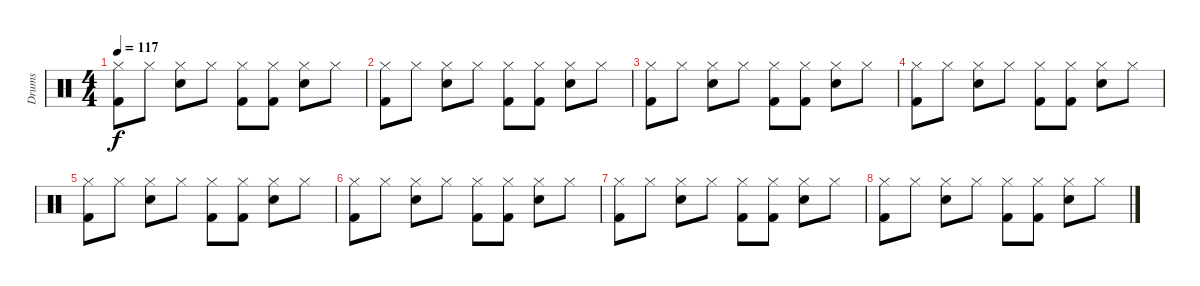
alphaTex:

\track ("Drums" "Drums") {instrument percussion}
\staff {score}
\articulation defaults
\ts (4 4)
\tempo 117
\clef neutral
\ks c
("Hi-Hat (closed)" "Kick (hit) 2").8{dy f} "Hi-Hat (closed)".8 ("Hi-Hat (closed)" "Snare (hit) 2").8 "Hi-Hat (closed)".8 ("Hi-Hat (closed)" "Kick (hit) 2").8 ("Hi-Hat (closed)" "Kick (hit) 2").8 ("Hi-Hat (closed)" "Snare (hit) 2").8 "Hi-Hat (closed)".8 |
("Hi-Hat (closed)" "Kick (hit) 2").8 "Hi-Hat (closed)".8 ("Hi-Hat (closed)" "Snare (hit) 2").8 "Hi-Hat (closed)".8 ("Hi-Hat (closed)" "Kick (hit) 2").8 ("Hi-Hat (closed)" "Kick (hit) 2").8 ("Hi-Hat (closed)" "Snare (hit) 2").8 "Hi-Hat (closed)".8 |
("Hi-Hat (closed)" "Kick (hit) 2").8 "Hi-Hat (closed)".8 ("Hi-Hat (closed)" "Snare (hit) 2").8 "Hi-Hat (closed)".8 ("Hi-Hat (closed)" "Kick (hit) 2").8 ("Hi-Hat (closed)" "Kick (hit) 2").8 ("Hi-Hat (closed)" "Snare (hit) 2").8 "Hi-Hat (closed)".8 |
("Hi-Hat (closed)" "Kick (hit) 2").8 "Hi-Hat (closed)".8 ("Hi-Hat (closed)" "Snare (hit) 2").8 "Hi-Hat (closed)".8 ("Hi-Hat (closed)" "Kick (hit) 2").8 ("Hi-Hat (closed)" "Kick (hit) 2").8 ("Hi-Hat (closed)" "Snare (hit) 2").8 "Hi-Hat (closed)".8 |
("Hi-Hat (closed)" "Kick (hit) 2").8 "Hi-Hat (closed)".8 ("Hi-Hat (closed)" "Snare (hit) 2").8 "Hi-Hat (closed)".8 ("Hi-Hat (closed)" "Kick (hit) 2").8 ("Hi-Hat (closed)" "Kick (hit) 2").8 ("Hi-Hat (closed)" "Snare (hit) 2").8 "Hi-Hat (closed)".8 |
("Hi-Hat (closed)" "Kick (hit) 2").8 "Hi-Hat (closed)".8 ("Hi-Hat (closed)" "Snare (hit) 2").8 "Hi-Hat (closed)".8 ("Hi-Hat (closed)" "Kick (hit) 2").8 ("Hi-Hat (closed)" "Kick (hit) 2").8 ("Hi-Hat (closed)" "Snare (hit) 2").8 "Hi-Hat (closed)".8 |
("Hi-Hat (closed)" "Kick (hit) 2").8 "Hi-Hat (closed)".8 ("Hi-Hat (closed)" "Snare (hit) 2").8 "Hi-Hat (closed)".8 ("Hi-Hat (closed)" "Kick (hit) 2").8 ("Hi-Hat (closed)" "Kick (hit) 2").8 ("Hi-Hat (closed)" "Snare (hit) 2").8 "Hi-Hat (closed)".8 |
("Hi-Hat (closed)" "Kick (hit) 2").8 "Hi-Hat (closed)".8 ("Hi-Hat (closed)" "Snare (hit) 2").8 "Hi-Hat (closed)".8 ("Hi-Hat (closed)" "Kick (hit) 2").8 ("Hi-Hat (closed)" "Kick (hit) 2").8 ("Hi-Hat (closed)" "Snare (hit) 2").8 "Hi-Hat (closed)".8
